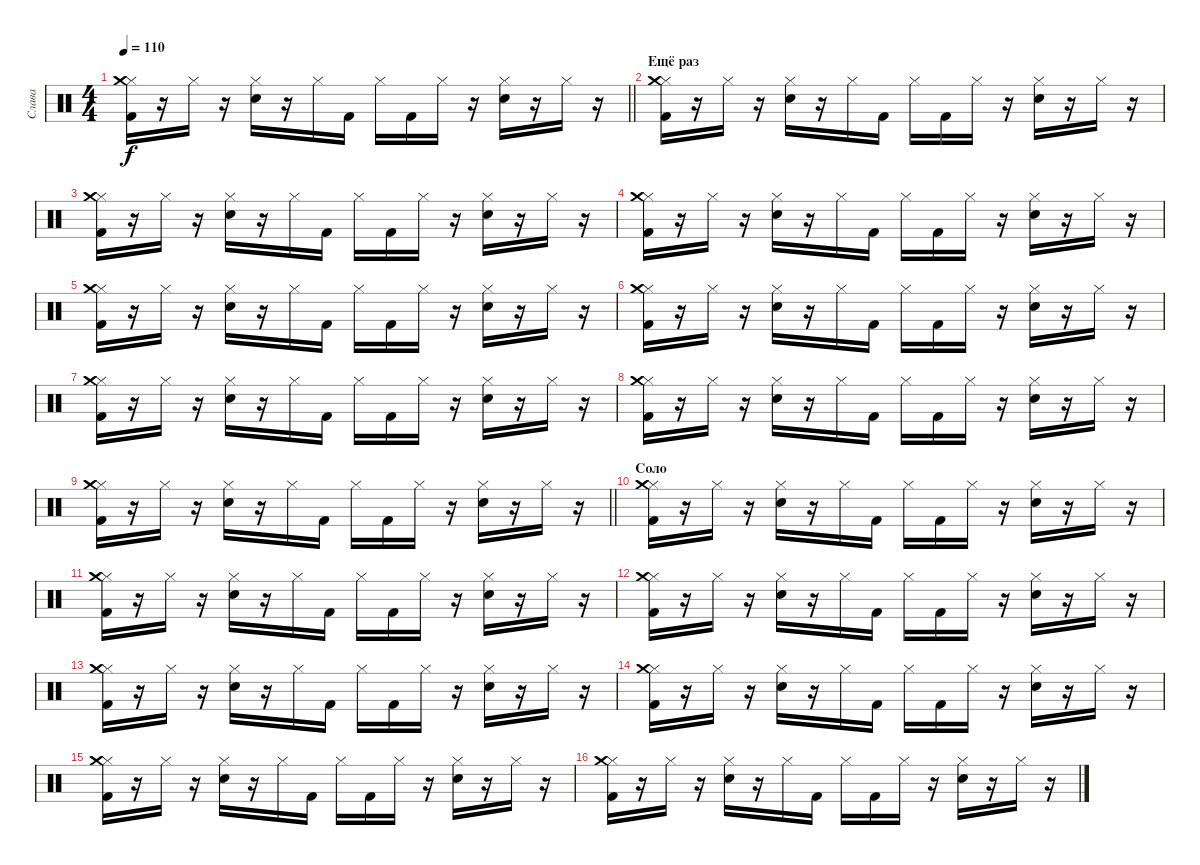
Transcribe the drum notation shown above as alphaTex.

\track ("Слава" "Слава") {instrument percussion}
\staff {score}
\articulation defaults
\ts (4 4)
\tempo 110
\clef neutral
\barLineRight lightlight
\ks c
("Hi-Hat (closed)" "Crash medium (hit)" "Kick (hit) 2").16{dy f} r.16 "Hi-Hat (closed)".16 r.16 ("Hi-Hat (closed)" "Electric Snare (hit)").16 r.16 "Hi-Hat (closed)".16 "Kick (hit) 2".16 "Hi-Hat (closed)".16 "Kick (hit) 2".16 "Hi-Hat (closed)".16 r.16 ("Hi-Hat (closed)" "Electric Snare (hit)").16 r.16 "Hi-Hat (closed)".16 r.16 |
\section ("" "Ещё раз")
("Hi-Hat (closed)" "Crash medium (hit)" "Kick (hit) 2").16 r.16 "Hi-Hat (closed)".16 r.16 ("Hi-Hat (closed)" "Electric Snare (hit)").16 r.16 "Hi-Hat (closed)".16 "Kick (hit) 2".16 "Hi-Hat (closed)".16 "Kick (hit) 2".16 "Hi-Hat (closed)".16 r.16 ("Hi-Hat (closed)" "Electric Snare (hit)").16 r.16 "Hi-Hat (closed)".16 r.16 |
("Hi-Hat (closed)" "Crash medium (hit)" "Kick (hit) 2").16 r.16 "Hi-Hat (closed)".16 r.16 ("Hi-Hat (closed)" "Electric Snare (hit)").16 r.16 "Hi-Hat (closed)".16 "Kick (hit) 2".16 "Hi-Hat (closed)".16 "Kick (hit) 2".16 "Hi-Hat (closed)".16 r.16 ("Hi-Hat (closed)" "Electric Snare (hit)").16 r.16 "Hi-Hat (closed)".16 r.16 |
("Hi-Hat (closed)" "Crash medium (hit)" "Kick (hit) 2").16 r.16 "Hi-Hat (closed)".16 r.16 ("Hi-Hat (closed)" "Electric Snare (hit)").16 r.16 "Hi-Hat (closed)".16 "Kick (hit) 2".16 "Hi-Hat (closed)".16 "Kick (hit) 2".16 "Hi-Hat (closed)".16 r.16 ("Hi-Hat (closed)" "Electric Snare (hit)").16 r.16 "Hi-Hat (closed)".16 r.16 |
("Hi-Hat (closed)" "Crash medium (hit)" "Kick (hit) 2").16 r.16 "Hi-Hat (closed)".16 r.16 ("Hi-Hat (closed)" "Electric Snare (hit)").16 r.16 "Hi-Hat (closed)".16 "Kick (hit) 2".16 "Hi-Hat (closed)".16 "Kick (hit) 2".16 "Hi-Hat (closed)".16 r.16 ("Hi-Hat (closed)" "Electric Snare (hit)").16 r.16 "Hi-Hat (closed)".16 r.16 |
("Hi-Hat (closed)" "Crash medium (hit)" "Kick (hit) 2").16 r.16 "Hi-Hat (closed)".16 r.16 ("Hi-Hat (closed)" "Electric Snare (hit)").16 r.16 "Hi-Hat (closed)".16 "Kick (hit) 2".16 "Hi-Hat (closed)".16 "Kick (hit) 2".16 "Hi-Hat (closed)".16 r.16 ("Hi-Hat (closed)" "Electric Snare (hit)").16 r.16 "Hi-Hat (closed)".16 r.16 |
("Hi-Hat (closed)" "Crash medium (hit)" "Kick (hit) 2").16 r.16 "Hi-Hat (closed)".16 r.16 ("Hi-Hat (closed)" "Electric Snare (hit)").16 r.16 "Hi-Hat (closed)".16 "Kick (hit) 2".16 "Hi-Hat (closed)".16 "Kick (hit) 2".16 "Hi-Hat (closed)".16 r.16 ("Hi-Hat (closed)" "Electric Snare (hit)").16 r.16 "Hi-Hat (closed)".16 r.16 |
("Hi-Hat (closed)" "Crash medium (hit)" "Kick (hit) 2").16 r.16 "Hi-Hat (closed)".16 r.16 ("Hi-Hat (closed)" "Electric Snare (hit)").16 r.16 "Hi-Hat (closed)".16 "Kick (hit) 2".16 "Hi-Hat (closed)".16 "Kick (hit) 2".16 "Hi-Hat (closed)".16 r.16 ("Hi-Hat (closed)" "Electric Snare (hit)").16 r.16 "Hi-Hat (closed)".16 r.16 |
\barLineRight lightlight
("Hi-Hat (closed)" "Crash medium (hit)" "Kick (hit) 2").16 r.16 "Hi-Hat (closed)".16 r.16 ("Hi-Hat (closed)" "Electric Snare (hit)").16 r.16 "Hi-Hat (closed)".16 "Kick (hit) 2".16 "Hi-Hat (closed)".16 "Kick (hit) 2".16 "Hi-Hat (closed)".16 r.16 ("Hi-Hat (closed)" "Electric Snare (hit)").16 r.16 "Hi-Hat (closed)".16 r.16 |
\section ("" "Соло")
("Hi-Hat (closed)" "Crash medium (hit)" "Kick (hit) 2").16 r.16 "Hi-Hat (closed)".16 r.16 ("Hi-Hat (closed)" "Electric Snare (hit)").16 r.16 "Hi-Hat (closed)".16 "Kick (hit) 2".16 "Hi-Hat (closed)".16 "Kick (hit) 2".16 "Hi-Hat (closed)".16 r.16 ("Hi-Hat (closed)" "Electric Snare (hit)").16 r.16 "Hi-Hat (closed)".16 r.16 |
("Hi-Hat (closed)" "Crash medium (hit)" "Kick (hit) 2").16 r.16 "Hi-Hat (closed)".16 r.16 ("Hi-Hat (closed)" "Electric Snare (hit)").16 r.16 "Hi-Hat (closed)".16 "Kick (hit) 2".16 "Hi-Hat (closed)".16 "Kick (hit) 2".16 "Hi-Hat (closed)".16 r.16 ("Hi-Hat (closed)" "Electric Snare (hit)").16 r.16 "Hi-Hat (closed)".16 r.16 |
("Hi-Hat (closed)" "Crash medium (hit)" "Kick (hit) 2").16 r.16 "Hi-Hat (closed)".16 r.16 ("Hi-Hat (closed)" "Electric Snare (hit)").16 r.16 "Hi-Hat (closed)".16 "Kick (hit) 2".16 "Hi-Hat (closed)".16 "Kick (hit) 2".16 "Hi-Hat (closed)".16 r.16 ("Hi-Hat (closed)" "Electric Snare (hit)").16 r.16 "Hi-Hat (closed)".16 r.16 |
("Hi-Hat (closed)" "Crash medium (hit)" "Kick (hit) 2").16 r.16 "Hi-Hat (closed)".16 r.16 ("Hi-Hat (closed)" "Electric Snare (hit)").16 r.16 "Hi-Hat (closed)".16 "Kick (hit) 2".16 "Hi-Hat (closed)".16 "Kick (hit) 2".16 "Hi-Hat (closed)".16 r.16 ("Hi-Hat (closed)" "Electric Snare (hit)").16 r.16 "Hi-Hat (closed)".16 r.16 |
("Hi-Hat (closed)" "Crash medium (hit)" "Kick (hit) 2").16 r.16 "Hi-Hat (closed)".16 r.16 ("Hi-Hat (closed)" "Electric Snare (hit)").16 r.16 "Hi-Hat (closed)".16 "Kick (hit) 2".16 "Hi-Hat (closed)".16 "Kick (hit) 2".16 "Hi-Hat (closed)".16 r.16 ("Hi-Hat (closed)" "Electric Snare (hit)").16 r.16 "Hi-Hat (closed)".16 r.16 |
("Hi-Hat (closed)" "Crash medium (hit)" "Kick (hit) 2").16 r.16 "Hi-Hat (closed)".16 r.16 ("Hi-Hat (closed)" "Electric Snare (hit)").16 r.16 "Hi-Hat (closed)".16 "Kick (hit) 2".16 "Hi-Hat (closed)".16 "Kick (hit) 2".16 "Hi-Hat (closed)".16 r.16 ("Hi-Hat (closed)" "Electric Snare (hit)").16 r.16 "Hi-Hat (closed)".16 r.16 |
("Hi-Hat (closed)" "Crash medium (hit)" "Kick (hit) 2").16 r.16 "Hi-Hat (closed)".16 r.16 ("Hi-Hat (closed)" "Electric Snare (hit)").16 r.16 "Hi-Hat (closed)".16 "Kick (hit) 2".16 "Hi-Hat (closed)".16 "Kick (hit) 2".16 "Hi-Hat (closed)".16 r.16 ("Hi-Hat (closed)" "Electric Snare (hit)").16 r.16 "Hi-Hat (closed)".16 r.16
